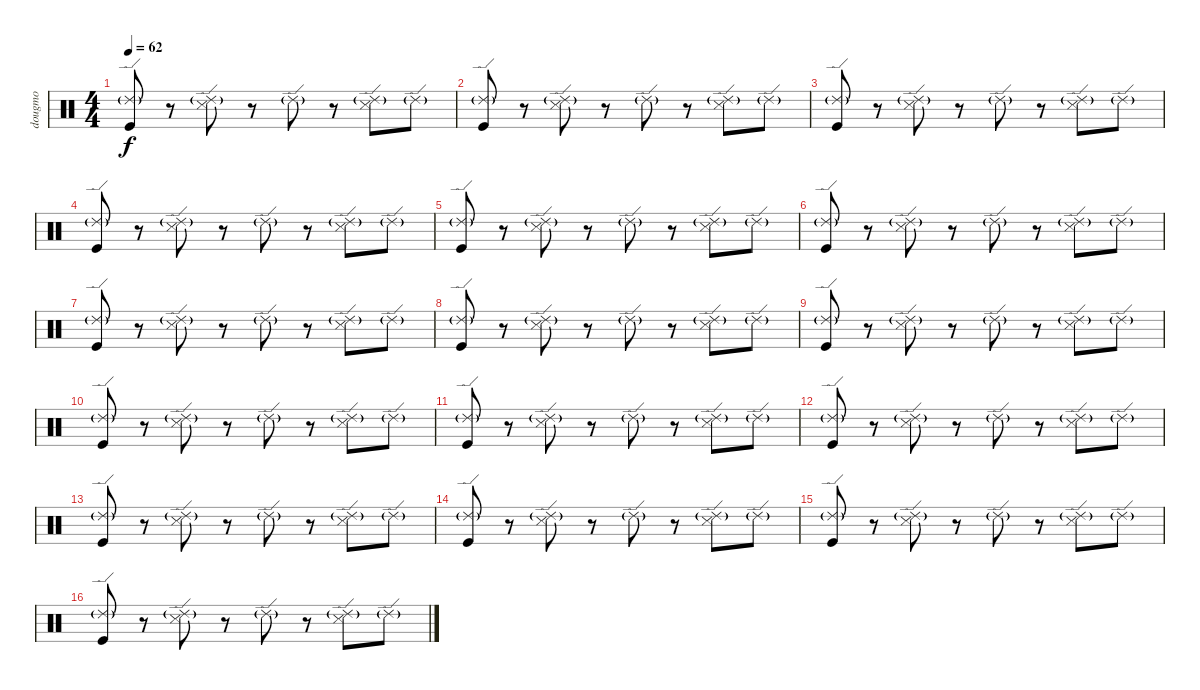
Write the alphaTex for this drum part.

\track ("dougmo" "dougmo") {instrument percussion}
\staff {score}
\articulation defaults
\ts (4 4)
\tempo 62
\clef neutral
\ks c
("Kick (hit)" "Ride (edge) 2"{g}).8{dy f} r.8 ("Snare (side stick) 3" "Ride (edge) 2"{g}).8 r.8 "Ride (edge) 2"{g}.8 r.8 ("Snare (side stick) 3" "Ride (edge) 2"{g}).8 "Ride (edge) 2"{g}.8 |
("Kick (hit)" "Ride (edge) 2"{g}).8 r.8 ("Snare (side stick) 3" "Ride (edge) 2"{g}).8 r.8 "Ride (edge) 2"{g}.8 r.8 ("Snare (side stick) 3" "Ride (edge) 2"{g}).8 "Ride (edge) 2"{g}.8 |
("Kick (hit)" "Ride (edge) 2"{g}).8 r.8 ("Snare (side stick) 3" "Ride (edge) 2"{g}).8 r.8 "Ride (edge) 2"{g}.8 r.8 ("Snare (side stick) 3" "Ride (edge) 2"{g}).8 "Ride (edge) 2"{g}.8 |
("Kick (hit)" "Ride (edge) 2"{g}).8 r.8 ("Snare (side stick) 3" "Ride (edge) 2"{g}).8 r.8 "Ride (edge) 2"{g}.8 r.8 ("Snare (side stick) 3" "Ride (edge) 2"{g}).8 "Ride (edge) 2"{g}.8 |
("Kick (hit)" "Ride (edge) 2"{g}).8 r.8 ("Snare (side stick) 3" "Ride (edge) 2"{g}).8 r.8 "Ride (edge) 2"{g}.8 r.8 ("Snare (side stick) 3" "Ride (edge) 2"{g}).8 "Ride (edge) 2"{g}.8 |
("Kick (hit)" "Ride (edge) 2"{g}).8 r.8 ("Snare (side stick) 3" "Ride (edge) 2"{g}).8 r.8 "Ride (edge) 2"{g}.8 r.8 ("Snare (side stick) 3" "Ride (edge) 2"{g}).8 "Ride (edge) 2"{g}.8 |
("Kick (hit)" "Ride (edge) 2"{g}).8 r.8 ("Snare (side stick) 3" "Ride (edge) 2"{g}).8 r.8 "Ride (edge) 2"{g}.8 r.8 ("Snare (side stick) 3" "Ride (edge) 2"{g}).8 "Ride (edge) 2"{g}.8 |
("Kick (hit)" "Ride (edge) 2"{g}).8 r.8 ("Snare (side stick) 3" "Ride (edge) 2"{g}).8 r.8 "Ride (edge) 2"{g}.8 r.8 ("Snare (side stick) 3" "Ride (edge) 2"{g}).8 "Ride (edge) 2"{g}.8 |
("Kick (hit)" "Ride (edge) 2"{g}).8 r.8 ("Snare (side stick) 3" "Ride (edge) 2"{g}).8 r.8 "Ride (edge) 2"{g}.8 r.8 ("Snare (side stick) 3" "Ride (edge) 2"{g}).8 "Ride (edge) 2"{g}.8 |
("Kick (hit)" "Ride (edge) 2"{g}).8 r.8 ("Snare (side stick) 3" "Ride (edge) 2"{g}).8 r.8 "Ride (edge) 2"{g}.8 r.8 ("Snare (side stick) 3" "Ride (edge) 2"{g}).8 "Ride (edge) 2"{g}.8 |
("Kick (hit)" "Ride (edge) 2"{g}).8 r.8 ("Snare (side stick) 3" "Ride (edge) 2"{g}).8 r.8 "Ride (edge) 2"{g}.8 r.8 ("Snare (side stick) 3" "Ride (edge) 2"{g}).8 "Ride (edge) 2"{g}.8 |
("Kick (hit)" "Ride (edge) 2"{g}).8 r.8 ("Snare (side stick) 3" "Ride (edge) 2"{g}).8 r.8 "Ride (edge) 2"{g}.8 r.8 ("Snare (side stick) 3" "Ride (edge) 2"{g}).8 "Ride (edge) 2"{g}.8 |
("Kick (hit)" "Ride (edge) 2"{g}).8 r.8 ("Snare (side stick) 3" "Ride (edge) 2"{g}).8 r.8 "Ride (edge) 2"{g}.8 r.8 ("Snare (side stick) 3" "Ride (edge) 2"{g}).8 "Ride (edge) 2"{g}.8 |
("Kick (hit)" "Ride (edge) 2"{g}).8 r.8 ("Snare (side stick) 3" "Ride (edge) 2"{g}).8 r.8 "Ride (edge) 2"{g}.8 r.8 ("Snare (side stick) 3" "Ride (edge) 2"{g}).8 "Ride (edge) 2"{g}.8 |
("Kick (hit)" "Ride (edge) 2"{g}).8 r.8 ("Snare (side stick) 3" "Ride (edge) 2"{g}).8 r.8 "Ride (edge) 2"{g}.8 r.8 ("Snare (side stick) 3" "Ride (edge) 2"{g}).8 "Ride (edge) 2"{g}.8 |
("Kick (hit)" "Ride (edge) 2"{g}).8 r.8 ("Snare (side stick) 3" "Ride (edge) 2"{g}).8 r.8 "Ride (edge) 2"{g}.8 r.8 ("Snare (side stick) 3" "Ride (edge) 2"{g}).8 "Ride (edge) 2"{g}.8
